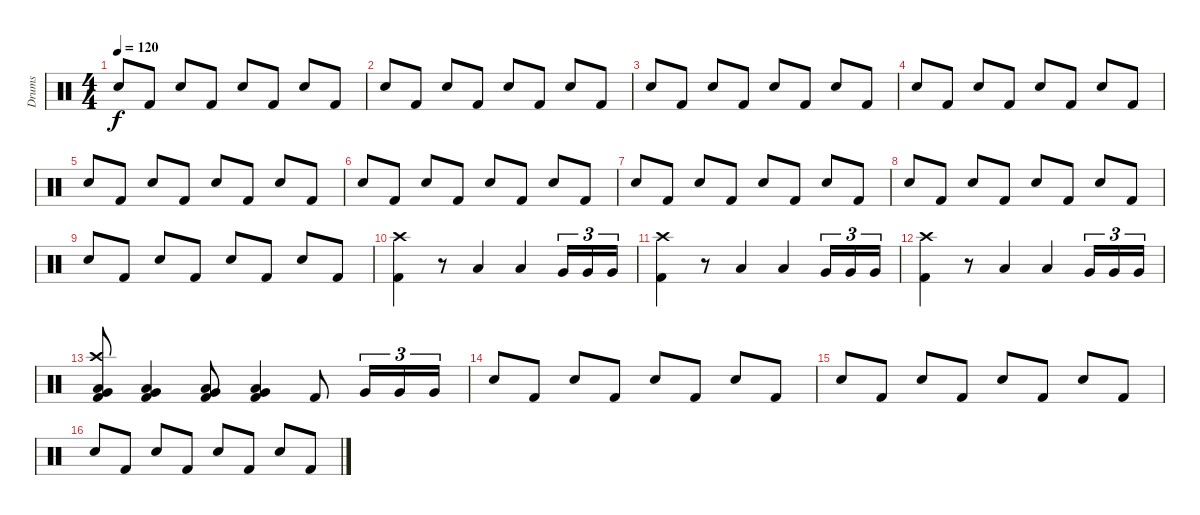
\track ("Drums" "Drums") {instrument percussion}
\staff {score}
\articulation defaults
\ts (4 4)
\tempo 120
\clef neutral
\ks c "Snare (hit) 2".8{dy f} "Kick (hit) 2".8 "Snare (hit) 2".8 "Kick (hit) 2".8 "Snare (hit) 2".8 "Kick (hit) 2".8 "Snare (hit) 2".8 "Kick (hit) 2".8
|
"Snare (hit) 2".8 "Kick (hit) 2".8 "Snare (hit) 2".8 "Kick (hit) 2".8 "Snare (hit) 2".8 "Kick (hit) 2".8 "Snare (hit) 2".8 "Kick (hit) 2".8 |
"Snare (hit) 2".8 "Kick (hit) 2".8 "Snare (hit) 2".8 "Kick (hit) 2".8 "Snare (hit) 2".8 "Kick (hit) 2".8 "Snare (hit) 2".8 "Kick (hit) 2".8 |
"Snare (hit) 2".8 "Kick (hit) 2".8 "Snare (hit) 2".8 "Kick (hit) 2".8 "Snare (hit) 2".8 "Kick (hit) 2".8 "Snare (hit) 2".8 "Kick (hit) 2".8 |
"Snare (hit) 2".8 "Kick (hit) 2".8 "Snare (hit) 2".8 "Kick (hit) 2".8 "Snare (hit) 2".8 "Kick (hit) 2".8 "Snare (hit) 2".8 "Kick (hit) 2".8 |
"Snare (hit) 2".8 "Kick (hit) 2".8 "Snare (hit) 2".8 "Kick (hit) 2".8 "Snare (hit) 2".8 "Kick (hit) 2".8 "Snare (hit) 2".8 "Kick (hit) 2".8 |
"Snare (hit) 2".8 "Kick (hit) 2".8 "Snare (hit) 2".8 "Kick (hit) 2".8 "Snare (hit) 2".8 "Kick (hit) 2".8 "Snare (hit) 2".8 "Kick (hit) 2".8 |
"Snare (hit) 2".8 "Kick (hit) 2".8 "Snare (hit) 2".8 "Kick (hit) 2".8 "Snare (hit) 2".8 "Kick (hit) 2".8 "Snare (hit) 2".8 "Kick (hit) 2".8 |
"Snare (hit) 2".8 "Kick (hit) 2".8 "Snare (hit) 2".8 "Kick (hit) 2".8 "Snare (hit) 2".8 "Kick (hit) 2".8 "Snare (hit) 2".8 "Kick (hit) 2".8 |
("Crash high (hit)" "Kick (hit) 2").4 r.8 "Low Floor Tom (hit)".4 "Low Tom (hit)".4 "Very Low Tom (hit)".16{tu (3 2)} "Very Low Tom (hit)".16{tu (3 2)} "Very Low Tom (hit)".16{tu (3 2)} |
("Crash high (hit)" "Kick (hit) 2").4 r.8 "Low Floor Tom (hit)".4 "Low Tom (hit)".4 "Very Low Tom (hit)".16{tu (3 2)} "Very Low Tom (hit)".16{tu (3 2)} "Very Low Tom (hit)".16{tu (3 2)} |
("Crash high (hit)" "Kick (hit) 2").4 r.8 "Low Floor Tom (hit)".4 "Low Tom (hit)".4 "Very Low Tom (hit)".16{tu (3 2)} "Very Low Tom (hit)".16{tu (3 2)} "Very Low Tom (hit)".16{tu (3 2)} |
("Crash high (hit)" "Very Low Tom (hit)" "Low Tom (hit)" "Kick (hit) 2").8 ("Very Low Tom (hit)" "Low Tom (hit)" "Kick (hit) 2").4 ("Very Low Tom (hit)" "Low Tom (hit)" "Kick (hit) 2").8 ("Low Tom (hit)" "Very Low Tom (hit)" "Kick (hit) 2").4 "Kick (hit) 2".8 "Very Low Tom (hit)".16{tu (3 2)} "Very Low Tom (hit)".16{tu (3 2)} "Very Low Tom (hit)".16{tu (3 2)} |
"Snare (hit) 2".8 "Kick (hit) 2".8 "Snare (hit) 2".8 "Kick (hit) 2".8 "Snare (hit) 2".8 "Kick (hit) 2".8 "Snare (hit) 2".8 "Kick (hit) 2".8 |
"Snare (hit) 2".8 "Kick (hit) 2".8 "Snare (hit) 2".8 "Kick (hit) 2".8 "Snare (hit) 2".8 "Kick (hit) 2".8 "Snare (hit) 2".8 "Kick (hit) 2".8 |
"Snare (hit) 2".8 "Kick (hit) 2".8 "Snare (hit) 2".8 "Kick (hit) 2".8 "Snare (hit) 2".8 "Kick (hit) 2".8 "Snare (hit) 2".8 "Kick (hit) 2".8
